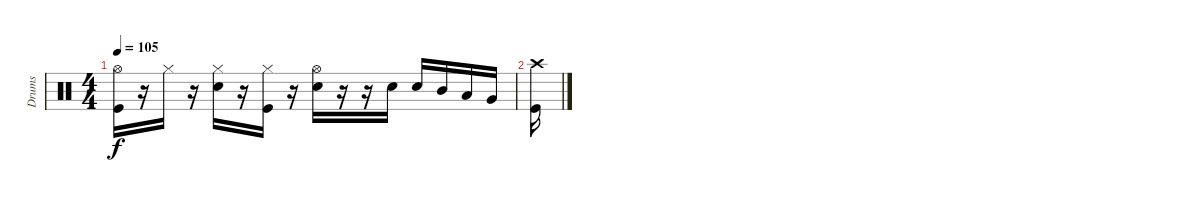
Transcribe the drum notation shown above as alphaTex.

\track ("Drums" "Drums") {instrument percussion}
\staff {score}
\articulation defaults
\ts (4 4)
\tempo 105
\clef neutral
\ks c
("Hi-Hat (open)" "Kick (hit)").16{dy f} r.16 "Hi-Hat (closed)".16 r.16 ("Hi-Hat (closed)" "Snare (hit) 2").16 r.16 ("Hi-Hat (closed)" "Kick (hit)").16 r.16 ("Hi-Hat (open)" "Snare (hit) 2").16 r.16 r.16 "Snare (hit) 2".16 "Snare (hit) 2".16 "Mid Tom (hit)".16 "Low Tom (hit)".16 "Very Low Tom (hit)".16 |
("Crash high (hit)" "Kick (hit)").16
